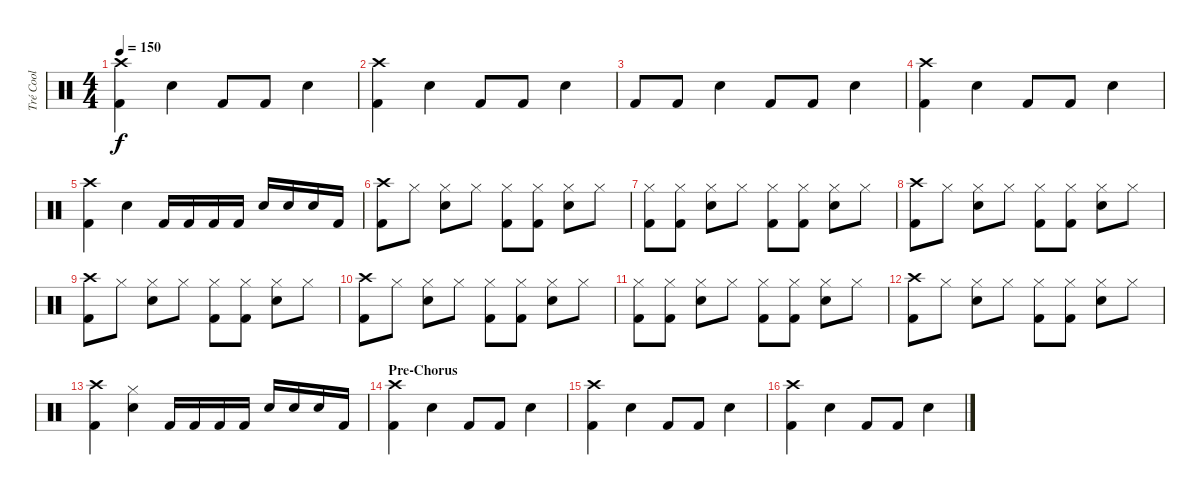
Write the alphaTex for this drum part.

\track ("Tré Cool" "Tré Cool") {instrument percussion}
\staff {score}
\articulation defaults
\ts (4 4)
\tempo 150
\clef neutral
\ks c
("Kick (hit) 2" "Crash high (hit)").4{dy f} "Snare (hit) 2".4 "Kick (hit) 2".8 "Kick (hit) 2".8 "Snare (hit) 2".4 |
("Kick (hit) 2" "Crash high (hit)").4 "Snare (hit) 2".4 "Kick (hit) 2".8 "Kick (hit) 2".8 "Snare (hit) 2".4 |
"Kick (hit) 2".8 "Kick (hit) 2".8 "Snare (hit) 2".4 "Kick (hit) 2".8 "Kick (hit) 2".8 "Snare (hit) 2".4 |
("Kick (hit) 2" "Crash high (hit)").4 "Snare (hit) 2".4 "Kick (hit) 2".8 "Kick (hit) 2".8 "Snare (hit) 2".4 |
("Kick (hit) 2" "Crash high (hit)").4 "Snare (hit) 2".4 "Kick (hit) 2".16 "Kick (hit) 2".16 "Kick (hit) 2".16 "Kick (hit) 2".16 "Snare (hit) 2".16 "Snare (hit) 2".16 "Snare (hit) 2".16 "Kick (hit) 2".16 |
("Kick (hit) 2" "Crash high (hit)").8 "Hi-Hat (closed)".8 ("Snare (hit) 2" "Hi-Hat (closed)").8 "Hi-Hat (closed)".8 ("Kick (hit) 2" "Hi-Hat (closed)").8 ("Kick (hit) 2" "Hi-Hat (closed)").8 ("Snare (hit) 2" "Hi-Hat (closed)").8 "Hi-Hat (closed)".8 |
("Kick (hit) 2" "Hi-Hat (closed)").8 ("Kick (hit) 2" "Hi-Hat (closed)").8 ("Snare (hit) 2" "Hi-Hat (closed)").8 "Hi-Hat (closed)".8 ("Kick (hit) 2" "Hi-Hat (closed)").8 ("Kick (hit) 2" "Hi-Hat (closed)").8 ("Snare (hit) 2" "Hi-Hat (closed)").8 "Hi-Hat (closed)".8 |
("Kick (hit) 2" "Crash high (hit)").8 "Hi-Hat (closed)".8 ("Snare (hit) 2" "Hi-Hat (closed)").8 "Hi-Hat (closed)".8 ("Kick (hit) 2" "Hi-Hat (closed)").8 ("Kick (hit) 2" "Hi-Hat (closed)").8 ("Snare (hit) 2" "Hi-Hat (closed)").8 "Hi-Hat (closed)".8 |
("Kick (hit) 2" "Crash high (hit)").8 "Hi-Hat (closed)".8 ("Snare (hit) 2" "Hi-Hat (closed)").8 "Hi-Hat (closed)".8 ("Kick (hit) 2" "Hi-Hat (closed)").8 ("Kick (hit) 2" "Hi-Hat (closed)").8 ("Snare (hit) 2" "Hi-Hat (closed)").8 "Hi-Hat (closed)".8 |
("Kick (hit) 2" "Crash high (hit)").8 "Hi-Hat (closed)".8 ("Snare (hit) 2" "Hi-Hat (closed)").8 "Hi-Hat (closed)".8 ("Kick (hit) 2" "Hi-Hat (closed)").8 ("Kick (hit) 2" "Hi-Hat (closed)").8 ("Snare (hit) 2" "Hi-Hat (closed)").8 "Hi-Hat (closed)".8 |
("Kick (hit) 2" "Hi-Hat (closed)").8 ("Kick (hit) 2" "Hi-Hat (closed)").8 ("Snare (hit) 2" "Hi-Hat (closed)").8 "Hi-Hat (closed)".8 ("Kick (hit) 2" "Hi-Hat (closed)").8 ("Kick (hit) 2" "Hi-Hat (closed)").8 ("Snare (hit) 2" "Hi-Hat (closed)").8 "Hi-Hat (closed)".8 |
("Kick (hit) 2" "Crash high (hit)").8 "Hi-Hat (closed)".8 ("Snare (hit) 2" "Hi-Hat (closed)").8 "Hi-Hat (closed)".8 ("Kick (hit) 2" "Hi-Hat (closed)").8 ("Kick (hit) 2" "Hi-Hat (closed)").8 ("Snare (hit) 2" "Hi-Hat (closed)").8 "Hi-Hat (closed)".8 |
("Kick (hit) 2" "Crash high (hit)").4 ("Snare (hit) 2" "Hi-Hat (closed)").4 "Kick (hit) 2".16 "Kick (hit) 2".16 "Kick (hit) 2".16 "Kick (hit) 2".16 "Snare (hit) 2".16 "Snare (hit) 2".16 "Snare (hit) 2".16 "Kick (hit) 2".16 |
\section ("" "Pre-Chorus")
("Kick (hit) 2" "Crash high (hit)").4 "Snare (hit) 2".4 "Kick (hit) 2".8 "Kick (hit) 2".8 "Snare (hit) 2".4 |
("Kick (hit) 2" "Crash high (hit)").4 "Snare (hit) 2".4 "Kick (hit) 2".8 "Kick (hit) 2".8 "Snare (hit) 2".4 |
("Kick (hit) 2" "Crash high (hit)").4 "Snare (hit) 2".4 "Kick (hit) 2".8 "Kick (hit) 2".8 "Snare (hit) 2".4
